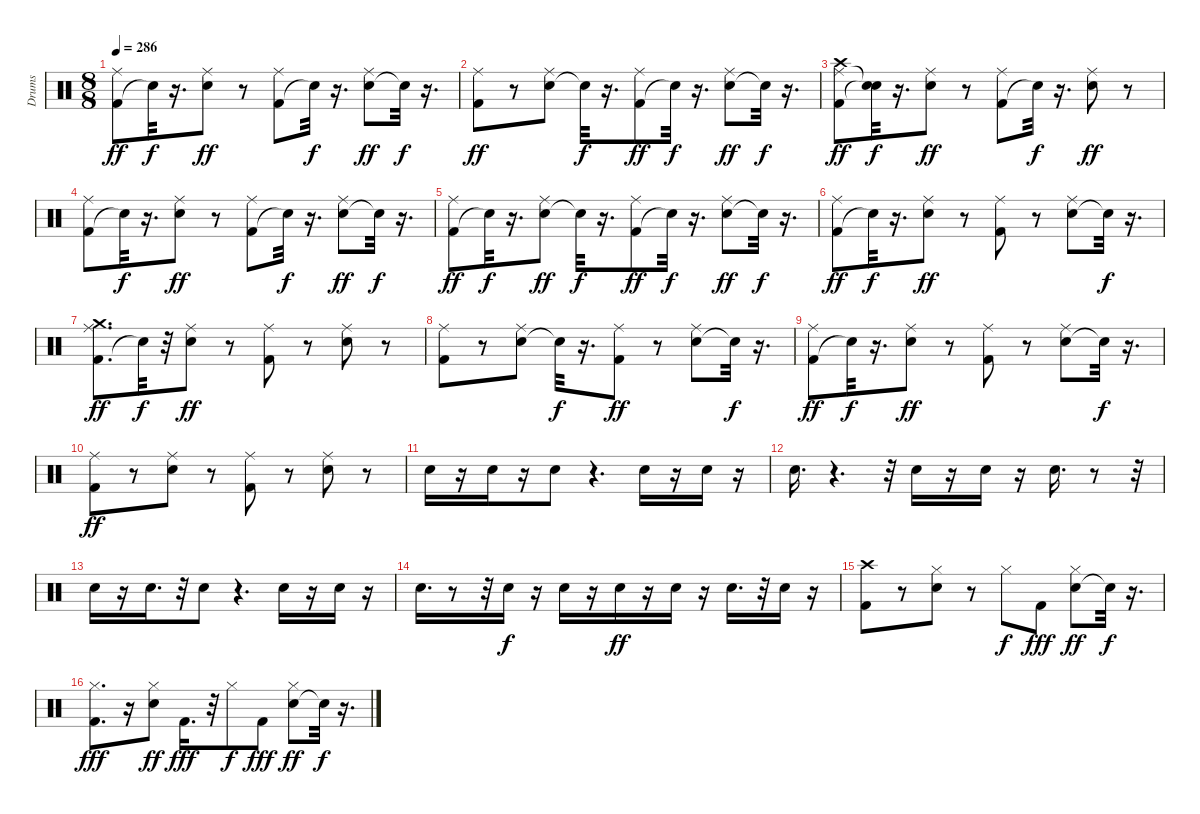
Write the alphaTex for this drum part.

\track ("Drums" "Drums") {instrument percussion}
\staff {score}
\articulation defaults
\ts (8 8)
\tempo 286
\clef neutral
\ks c
("Kick (hit) 2" "Ride (middle)").8{dy ff} "Snare (hit)"{t}.32{dy f} r.16{d} ("Snare (hit) 2" "Ride (middle)").8{dy ff} r.8 ("Kick (hit) 2" "Ride (middle)").8 "Snare (hit)"{t}.32{dy f} r.16{d} ("Snare (hit) 2" "Ride (middle)").8{dy ff} "Snare (hit)"{t}.32{dy f} r.16{d} |
("Kick (hit) 2" "Ride (middle)").8{dy ff} r.8 ("Snare (hit) 2" "Ride (middle)").8 "Snare (hit)"{t}.32{dy f} r.16{d} ("Kick (hit) 2" "Ride (middle)").8{dy ff} "Snare (hit)"{t}.32{dy f} r.16{d} ("Snare (hit) 2" "Ride (middle)").8{dy ff} "Snare (hit)"{t}.32{dy f} r.16{d} |
("Kick (hit) 2" "Ride (middle)" "Crash high (hit)").8{dy ff} ("Snare (hit)"{t} "Snare (hit)"{t}).32{dy f} r.16{d} ("Snare (hit) 2" "Ride (middle)").8{dy ff} r.8 ("Kick (hit) 2" "Ride (middle)").8 "Snare (hit)"{t}.32{dy f} r.16{d} ("Snare (hit) 2" "Ride (middle)").8{dy ff} r.8 |
("Kick (hit) 2" "Ride (middle)").8 "Snare (hit)"{t}.32{dy f} r.16{d} ("Snare (hit) 2" "Ride (middle)").8{dy ff} r.8 ("Kick (hit) 2" "Ride (middle)").8 "Snare (hit)"{t}.32{dy f} r.16{d} ("Snare (hit) 2" "Ride (middle)").8{dy ff} "Snare (hit)"{t}.32{dy f} r.16{d} |
("Kick (hit) 2" "Ride (middle)").8{dy ff} "Snare (hit)"{t}.32{dy f} r.16{d} ("Snare (hit) 2" "Ride (middle)").8{dy ff} "Snare (hit)"{t}.32{dy f} r.16{d} ("Kick (hit) 2" "Ride (middle)").8{dy ff} "Snare (hit)"{t}.32{dy f} r.16{d} ("Snare (hit) 2" "Ride (middle)").8{dy ff} "Snare (hit)"{t}.32{dy f} r.16{d} |
("Kick (hit) 2" "Ride (middle)").8{dy ff} "Snare (hit)"{t}.32{dy f} r.16{d} ("Snare (hit) 2" "Ride (middle)").8{dy ff} r.8 ("Kick (hit) 2" "Ride (middle)").8 r.8 ("Snare (hit) 2" "Ride (middle)").8 "Snare (hit)"{t}.32{dy f} r.16{d} |
("Kick (hit) 2" "Ride (middle)" "Crash medium (hit)").8{d dy ff} "Snare (hit)"{t}.32{dy f} r.32 ("Snare (hit) 2" "Ride (middle)").8{dy ff} r.8 ("Kick (hit) 2" "Ride (middle)").8 r.8 ("Snare (hit) 2" "Ride (middle)").8 r.8 |
("Kick (hit) 2" "Ride (middle)").8 r.8 ("Snare (hit) 2" "Ride (middle)").8 "Snare (hit)"{t}.32{dy f} r.16{d} ("Kick (hit) 2" "Ride (middle)").8{dy ff} r.8 ("Snare (hit) 2" "Ride (middle)").8 "Snare (hit)"{t}.32{dy f} r.16{d} |
("Kick (hit) 2" "Ride (middle)").8{dy ff} "Snare (hit)"{t}.32{dy f} r.16{d} ("Snare (hit) 2" "Ride (middle)").8{dy ff} r.8 ("Kick (hit) 2" "Ride (middle)").8 r.8 ("Snare (hit) 2" "Ride (middle)").8 "Snare (hit)"{t}.32{dy f} r.16{d} |
("Kick (hit) 2" "Ride (middle)").8{dy ff} r.8 ("Snare (hit) 2" "Ride (middle)").8 r.8 ("Kick (hit) 2" "Ride (middle)").8 r.8 ("Snare (hit) 2" "Ride (middle)").8 r.8 |
"Snare (hit) 2".16 r.16 "Snare (hit) 2".16 r.16 "Snare (hit) 2".8 r.4{d} "Snare (hit) 2".16 r.16 "Snare (hit) 2".16 r.16 |
"Snare (hit) 2".16{d} r.4{d} r.32 "Snare (hit) 2".16 r.16 "Snare (hit) 2".16 r.16 "Snare (hit) 2".16{d} r.8 r.32 |
"Snare (hit) 2".16 r.16 "Snare (hit) 2".16{d} r.32 "Snare (hit) 2".8 r.4{d} "Snare (hit) 2".16 r.16 "Snare (hit) 2".16 r.16 |
"Snare (hit) 2".16{d} r.8 r.32 "Snare (hit) 2".16{dy f} r.16 "Snare (hit) 2".16 r.16 "Snare (hit) 2".16{dy ff} r.16 "Snare (hit) 2".16 r.16 "Snare (hit) 2".16{d} r.32 "Snare (hit) 2".16 r.16 |
("Kick (hit) 2" "Crash high (hit)").8 r.8 ("Snare (hit) 2" "Hi-Hat (closed)").8 r.8 "Hi-Hat (closed)".8{dy f} "Kick (hit) 2".8{dy fff} ("Snare (hit) 2" "Hi-Hat (closed)").8{dy ff} "Snare (hit)"{t}.32{dy f} r.16{d} |
("Kick (hit) 2" "Hi-Hat (closed)").8{d dy fff} r.16 ("Snare (hit) 2" "Hi-Hat (closed)").8{dy ff} "Kick (hit) 2".16{d dy fff} r.32 "Hi-Hat (closed)".8{dy f} "Kick (hit) 2".8{dy fff} ("Snare (hit) 2" "Hi-Hat (closed)").8{dy ff} "Snare (hit)"{t}.32{dy f} r.16{d}
